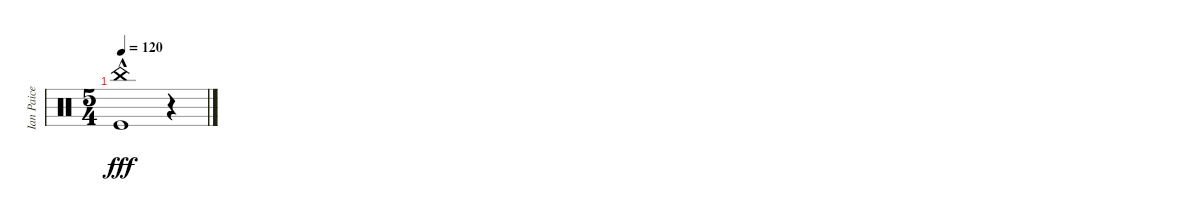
\track ("Ian Paice" "Ian Paice") {instrument percussion}
\staff {score}
\articulation defaults
\ts (5 4)
\tempo 120
\clef neutral
\ks c
("Kick (hit)"{hac} "China (hit)"{hac}).1{dy fff} r.4
